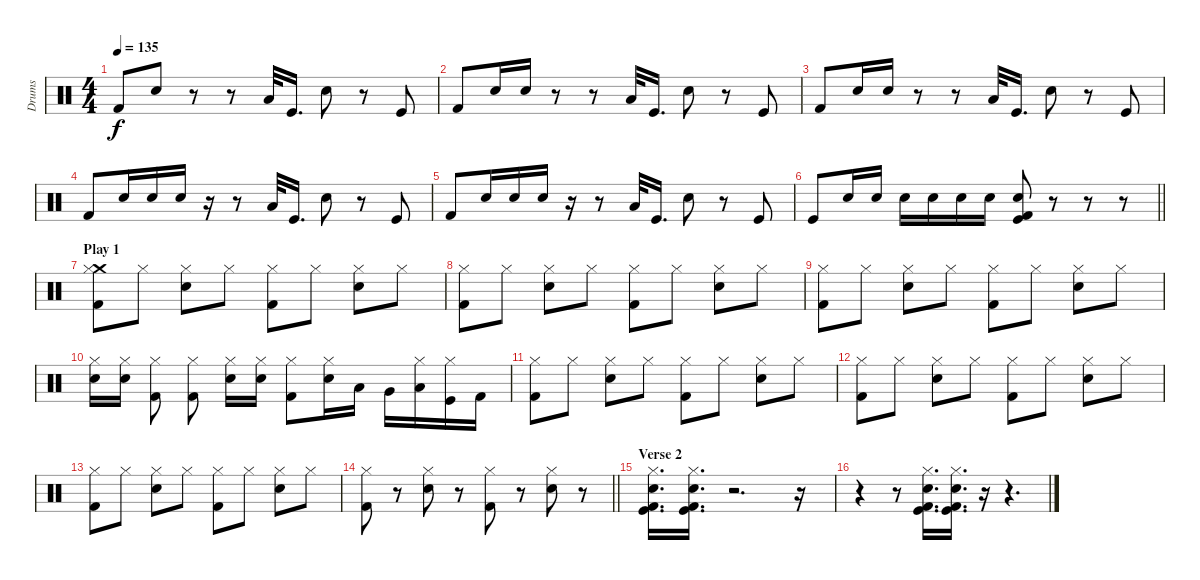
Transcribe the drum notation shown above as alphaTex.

\track ("Drums" "Drums") {instrument percussion}
\staff {score}
\articulation defaults
\ts (4 4)
\tempo 135
\clef neutral
\ks c "Kick (hit) 2".8{dy f} "Snare (hit) 2".8
r.8 r.8 "Low Tom (hit)".32 "Kick (hit)".16{d beam split} "Snare (hit) 2".8 r.8 "Kick (hit)".8 |
"Kick (hit) 2".8 "Snare (hit) 2".16 "Snare (hit) 2".16 r.8 r.8 "Low Tom (hit)".32 "Kick (hit)".16{d beam split} "Snare (hit) 2".8 r.8 "Kick (hit)".8 |
"Kick (hit) 2".8 "Snare (hit) 2".16 "Snare (hit) 2".16 r.8 r.8 "Low Tom (hit)".32 "Kick (hit)".16{d beam split} "Snare (hit) 2".8 r.8 "Kick (hit)".8 |
"Kick (hit) 2".8 "Snare (hit) 2".16 "Snare (hit) 2".16{beam merge} "Snare (hit) 2".16 r.16 r.8 "Low Tom (hit)".32 "Kick (hit)".16{d beam split} "Snare (hit) 2".8 r.8 "Kick (hit)".8 |
"Kick (hit) 2".8 "Snare (hit) 2".16 "Snare (hit) 2".16{beam merge} "Snare (hit) 2".16 r.16 r.8 "Low Tom (hit)".32 "Kick (hit)".16{d beam split} "Snare (hit) 2".8 r.8 "Kick (hit)".8 |
\barLineRight lightlight "Kick (hit)".8 "Snare (hit) 2".16 "Snare (hit) 2".16 "Snare (hit) 2".16 "Snare (hit) 2".16 "Snare (hit) 2".16 "Snare (hit) 2".16
("Kick (hit)" "Snare (hit) 2" "Kick (hit) 2").8 r.8 r.8 r.8 |
\section ("" "Play 1")
("Kick (hit) 2" "Crash medium (hit)" "Hi-Hat (closed)").8 "Hi-Hat (closed)".8 ("Electric Snare (hit)" "Hi-Hat (closed)").8 "Hi-Hat (closed)".8 ("Kick (hit) 2" "Hi-Hat (closed)").8 "Hi-Hat (closed)".8 ("Electric Snare (hit)" "Hi-Hat (closed)").8 "Hi-Hat (closed)".8 |
("Kick (hit) 2" "Hi-Hat (closed)").8 "Hi-Hat (closed)".8 ("Electric Snare (hit)" "Hi-Hat (closed)").8 "Hi-Hat (closed)".8 ("Kick (hit) 2" "Hi-Hat (closed)").8 "Hi-Hat (closed)".8 ("Electric Snare (hit)" "Hi-Hat (closed)").8 "Hi-Hat (closed)".8 |
("Kick (hit) 2" "Hi-Hat (closed)").8 "Hi-Hat (closed)".8 ("Electric Snare (hit)" "Hi-Hat (closed)").8 "Hi-Hat (closed)".8 ("Kick (hit) 2" "Hi-Hat (closed)").8 "Hi-Hat (closed)".8 ("Electric Snare (hit)" "Hi-Hat (closed)").8 "Hi-Hat (closed)".8 |
("Electric Snare (hit)" "Hi-Hat (closed)").16 ("Electric Snare (hit)" "Hi-Hat (closed)").16{beam split} ("Kick (hit) 2" "Hi-Hat (closed)").8 ("Kick (hit) 2" "Hi-Hat (closed)").8{beam split} ("Electric Snare (hit)" "Hi-Hat (closed)").16{beam merge} ("Electric Snare (hit)" "Hi-Hat (closed)").16{beam split} ("Kick (hit) 2" "Hi-Hat (closed)").8 ("Electric Snare (hit)" "Hi-Hat (closed)").16 "Low Tom (hit)".16 "Very Low Tom (hit)".16 ("Low Floor Tom (hit)" "Hi-Hat (closed)").16 ("Kick (hit)" "Hi-Hat (closed)").16 "Kick (hit) 2".16 |
("Kick (hit) 2" "Hi-Hat (closed)").8 "Hi-Hat (closed)".8 ("Electric Snare (hit)" "Hi-Hat (closed)").8 "Hi-Hat (closed)".8 ("Kick (hit) 2" "Hi-Hat (closed)").8 "Hi-Hat (closed)".8 ("Electric Snare (hit)" "Hi-Hat (closed)").8 "Hi-Hat (closed)".8 |
("Kick (hit) 2" "Hi-Hat (closed)").8 "Hi-Hat (closed)".8 ("Electric Snare (hit)" "Hi-Hat (closed)").8 "Hi-Hat (closed)".8 ("Kick (hit) 2" "Hi-Hat (closed)").8 "Hi-Hat (closed)".8 ("Electric Snare (hit)" "Hi-Hat (closed)").8 "Hi-Hat (closed)".8 |
("Kick (hit) 2" "Hi-Hat (closed)").8 "Hi-Hat (closed)".8 ("Electric Snare (hit)" "Hi-Hat (closed)").8 "Hi-Hat (closed)".8 ("Kick (hit) 2" "Hi-Hat (closed)").8 "Hi-Hat (closed)".8 ("Electric Snare (hit)" "Hi-Hat (closed)").8 "Hi-Hat (closed)".8 |
\barLineRight lightlight
("Kick (hit) 2" "Hi-Hat (closed)").8 r.8 ("Electric Snare (hit)" "Hi-Hat (closed)").8 r.8 ("Kick (hit) 2" "Hi-Hat (closed)").8 r.8 ("Electric Snare (hit)" "Hi-Hat (closed)").8 r.8 |
\section ("" "Verse 2")
("Kick (hit)" "Snare (hit) 2" "Kick (hit) 2" "Hi-Hat (closed)").16{d} ("Kick (hit)" "Snare (hit) 2" "Kick (hit) 2" "Hi-Hat (closed)").16{d} r.2{d} r.16 |
r.4 r.8 ("Kick (hit)" "Snare (hit) 2" "Kick (hit) 2" "Hi-Hat (closed)").16{d} ("Kick (hit)" "Snare (hit) 2" "Kick (hit) 2" "Hi-Hat (closed)").16{d} r.16 r.4{d}
